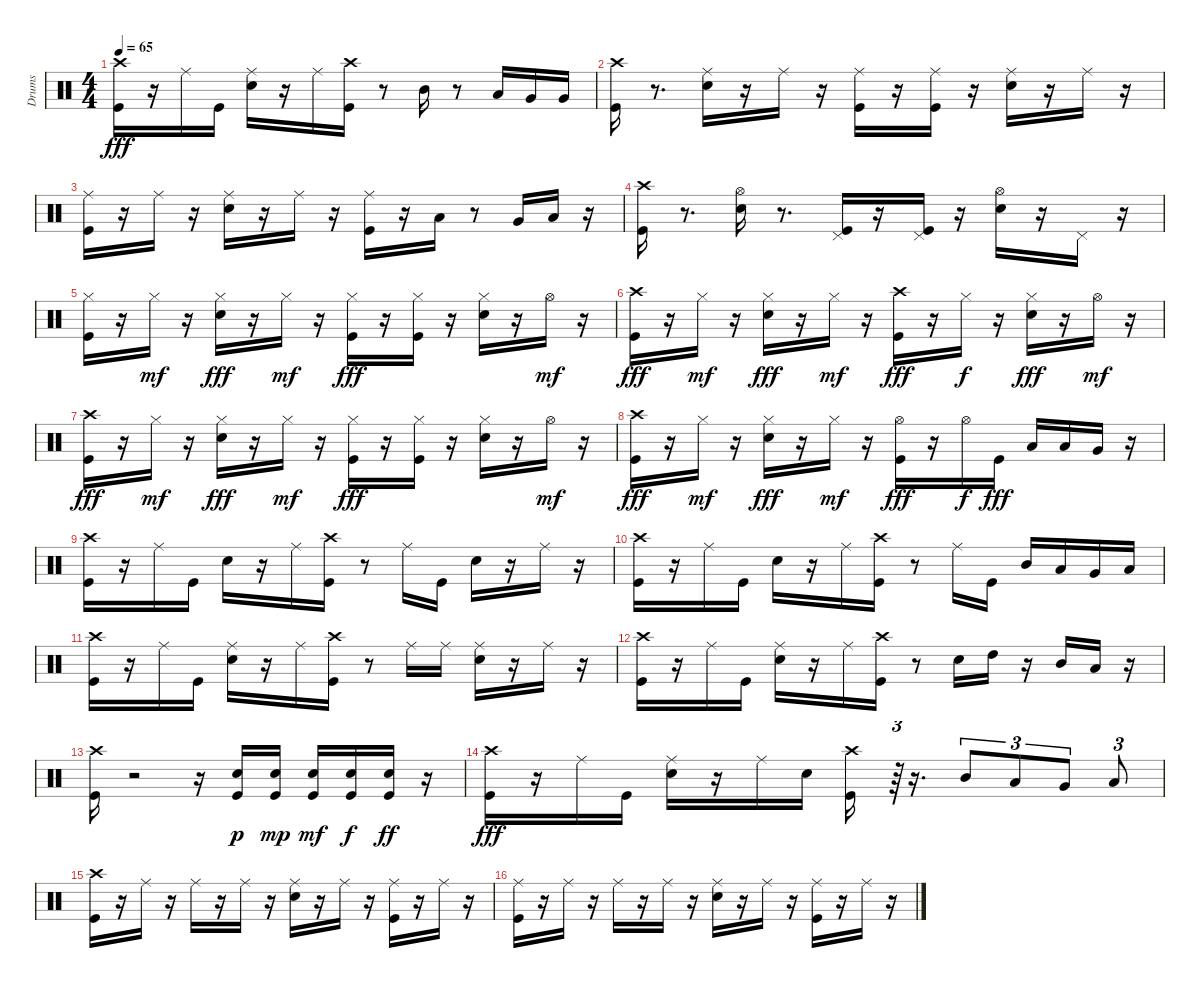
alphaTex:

\track ("Drums" "Drums") {instrument percussion}
\staff {score}
\articulation defaults
\ts (4 4)
\tempo 65
\clef neutral
\ks c
("Kick (hit)" "Crash high (hit)").16{dy fff} r.16 "Ride (middle)".16 "Kick (hit)".16 ("Snare (hit) 2" "Ride (middle)").16 r.16 "Ride (middle)".16 ("Crash high (hit)" "Kick (hit)").16 r.8 "Mid Tom (hit)".16 r.8 "Low Tom (hit)".16 "Very Low Tom (hit)".16 "Very Low Tom (hit)".16 |
("Crash high (hit)" "Kick (hit)").16 r.8{d} ("Snare (hit) 2" "Ride (middle)").16 r.16 "Ride (middle)".16 r.16 ("Kick (hit)" "Ride (middle)").16 r.16 ("Kick (hit)" "Ride (middle)").16 r.16 ("Snare (hit) 2" "Ride (middle)").16 r.16 "Ride (middle)".16 r.16 |
("Ride (middle)" "Kick (hit)").16 r.16 "Ride (middle)".16 r.16 ("Ride (middle)" "Snare (hit) 2").16 r.16 "Ride (middle)".16 r.16 ("Ride (middle)" "Kick (hit)").16 r.16 "Low Tom (hit)".16 r.8 "Very Low Tom (hit)".16 "Low Floor Tom (hit)".16 r.16 |
("Crash high (hit)" "Kick (hit)").16 r.8{d} ("Snare (hit) 2" "Hi-Hat (open)").16 r.8{d} ("Kick (hit)" "Pedal Hi-Hat (hit)").16 r.16 ("Kick (hit)" "Pedal Hi-Hat (hit)").16 r.16 ("Hi-Hat (open)" "Snare (hit) 2").16 r.16 "Pedal Hi-Hat (hit)".16 r.16 |
("Kick (hit)" "Hi-Hat (closed)").16 r.16 "Hi-Hat (closed)".16{dy mf} r.16 ("Snare (hit) 2" "Hi-Hat (closed)").16{dy fff} r.16 "Hi-Hat (closed)".16{dy mf} r.16 ("Kick (hit)" "Hi-Hat (closed)").16{dy fff} r.16 ("Kick (hit)" "Hi-Hat (closed)").16 r.16 ("Snare (hit) 2" "Hi-Hat (closed)").16 r.16 "Hi-Hat (open)".16{dy mf} r.16 |
("Crash high (hit)" "Kick (hit)").16{dy fff} r.16 "Hi-Hat (closed)".16{dy mf} r.16 ("Hi-Hat (closed)" "Snare (hit) 2").16{dy fff} r.16 "Hi-Hat (closed)".16{dy mf} r.16 ("Crash high (hit)" "Kick (hit)").16{dy fff} r.16 "Hi-Hat (closed)".16{dy f} r.16 ("Hi-Hat (closed)" "Snare (hit) 2").16{dy fff} r.16 "Hi-Hat (open)".16{dy mf} r.16 |
("Crash high (hit)" "Kick (hit)").16{dy fff} r.16 "Hi-Hat (closed)".16{dy mf} r.16 ("Hi-Hat (closed)" "Snare (hit) 2").16{dy fff} r.16 "Hi-Hat (closed)".16{dy mf} r.16 ("Hi-Hat (closed)" "Kick (hit)").16{dy fff} r.16 ("Hi-Hat (closed)" "Kick (hit)").16 r.16 ("Hi-Hat (closed)" "Snare (hit) 2").16 r.16 "Hi-Hat (open)".16{dy mf} r.16 |
("Kick (hit)" "Crash high (hit)").16{dy fff} r.16 "Hi-Hat (closed)".16{dy mf} r.16 ("Snare (hit) 2" "Hi-Hat (closed)").16{dy fff} r.16 "Hi-Hat (closed)".16{dy mf} r.16 ("Hi-Hat (open)" "Kick (hit)").16{dy fff} r.16 "Hi-Hat (open)".16{dy f} "Kick (hit)".16{dy fff} "Low Tom (hit)".16 "Low Tom (hit)".16 "Very Low Tom (hit)".16 r.16 |
("Crash high (hit)" "Kick (hit)").16 r.16 "Ride (middle)".16 "Kick (hit)".16 "Snare (hit) 2".16 r.16 "Ride (middle)".16 ("Crash high (hit)" "Kick (hit)").16 r.8 "Ride (middle)".16 "Kick (hit)".16 "Snare (hit) 2".16 r.16 "Ride (middle)".16 r.16 |
("Kick (hit)" "Crash high (hit)").16 r.16 "Ride (middle)".16 "Kick (hit)".16 "Snare (hit) 2".16 r.16 "Ride (middle)".16 ("Kick (hit)" "Crash high (hit)").16 r.8 "Ride (middle)".16 "Kick (hit)".16 "Mid Tom (hit)".16 "Low Tom (hit)".16 "Very Low Tom (hit)".16 "Low Floor Tom (hit)".16 |
("Crash high (hit)" "Kick (hit)").16 r.16 "Ride (middle)".16 "Kick (hit)".16 ("Ride (middle)" "Snare (hit) 2").16 r.16 "Ride (middle)".16 ("Crash high (hit)" "Kick (hit)").16 r.8 "Ride (middle)".16 "Ride (middle)".16 ("Ride (middle)" "Snare (hit) 2").16 r.16 "Ride (middle)".16 r.16 |
("Kick (hit)" "Crash high (hit)").16 r.16 "Ride (middle)".16 "Kick (hit)".16 ("Snare (hit) 2" "Ride (middle)").16 r.16 "Ride (middle)".16 ("Kick (hit)" "Crash high (hit)").16 r.8 "Snare (hit) 2".16 "High Tom (hit)".16 r.16 "Mid Tom (hit)".16 "Low Tom (hit)".16 r.16 |
("Crash high (hit)" "Kick (hit)").16 r.2 r.16 ("Snare (hit) 2" "Kick (hit)").16{dy p} ("Snare (hit) 2" "Kick (hit)").16{dy mp} ("Snare (hit) 2" "Kick (hit)").16{dy mf} ("Snare (hit) 2" "Kick (hit)").16{dy f} ("Snare (hit) 2" "Kick (hit)").16{dy ff} r.16 |
("Crash high (hit)" "Kick (hit)").16{dy fff} r.16 "Ride (middle)".16 "Kick (hit)".16 ("Snare (hit) 2" "Ride (middle)").16 r.16 "Ride (middle)".16 "Snare (hit) 2".16 ("Crash high (hit)" "Kick (hit)").16 r.64{tu (3 2)} r.16{d} "Mid Tom (hit)".8{tu (3 2)} "Low Tom (hit)".8{tu (3 2)} "Very Low Tom (hit)".8{tu (3 2)} "Low Floor Tom (hit)".8{tu (3 2)} |
("Kick (hit)" "Crash high (hit)").16 r.16 "Ride (middle)".16 r.16 "Ride (middle)".16 r.16 "Ride (middle)".16 r.16 ("Snare (hit) 2" "Ride (middle)").16 r.16 "Ride (middle)".16 r.16 ("Kick (hit)" "Ride (middle)").16 r.16 "Ride (middle)".16 r.16 |
("Kick (hit)" "Ride (middle)").16 r.16 "Ride (middle)".16 r.16 "Ride (middle)".16 r.16 "Ride (middle)".16 r.16 ("Ride (middle)" "Snare (hit) 2").16 r.16 "Ride (middle)".16 r.16 ("Kick (hit)" "Ride (middle)").16 r.16 "Ride (middle)".16 r.16
